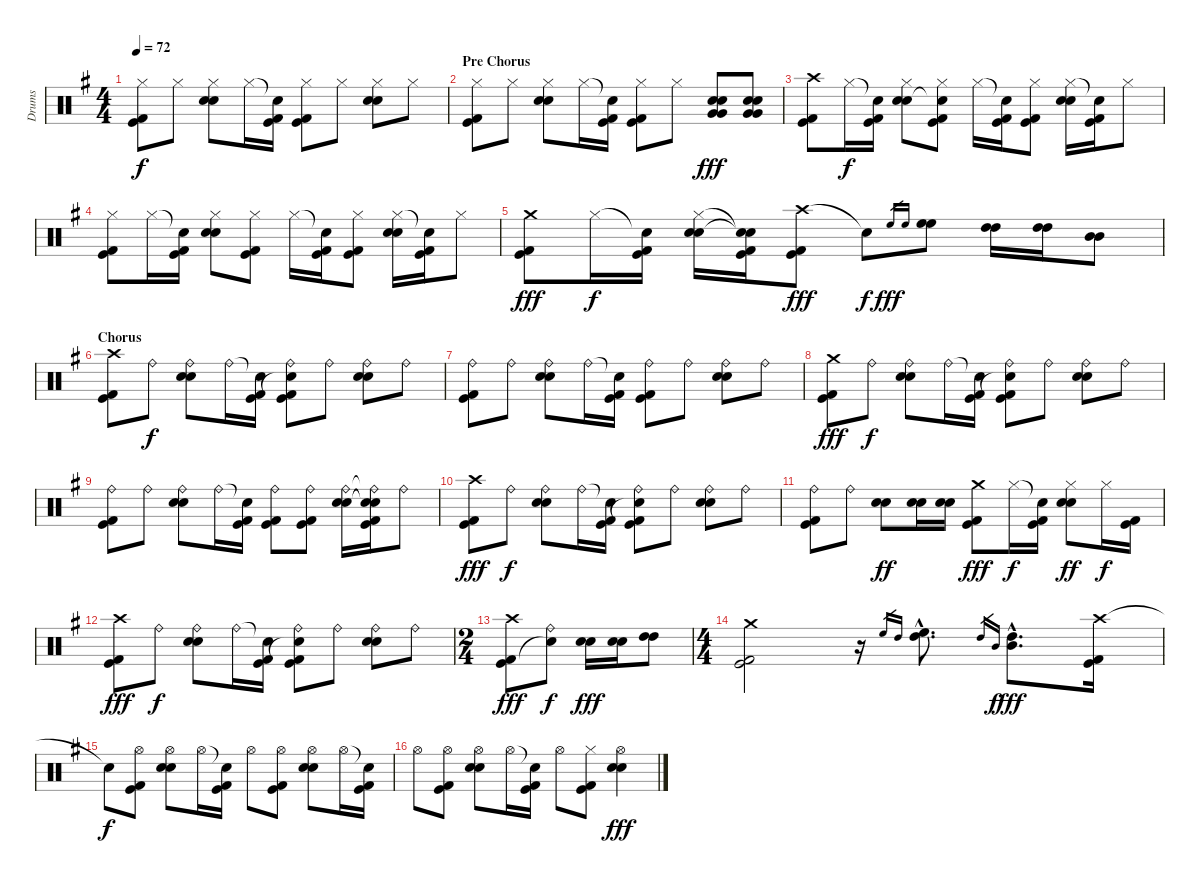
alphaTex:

\track ("Drums" "Drums") {instrument percussion}
\staff {score}
\articulation defaults
\ts (4 4)
\tempo 72
\clef neutral
\ks g
("Hi-Hat (closed)" "Kick (hit)" "Kick (hit) 2").8{dy f} "Hi-Hat (closed)".8 ("Hi-Hat (closed)" "Electric Snare (hit)" "Snare (hit) 2").8 "Hi-Hat (closed)".16 ("Snare (hit)"{t} "Kick (hit)" "Kick (hit) 2").16 ("Hi-Hat (closed)" "Kick (hit)" "Kick (hit) 2").8 "Hi-Hat (closed)".8 ("Hi-Hat (closed)" "Electric Snare (hit)" "Snare (hit) 2").8 "Hi-Hat (closed)".8 |
\section ("" "Pre Chorus")
("Hi-Hat (closed)" "Kick (hit)" "Kick (hit) 2").8 "Hi-Hat (closed)".8 ("Hi-Hat (closed)" "Electric Snare (hit)" "Snare (hit) 2").8 "Hi-Hat (closed)".16 ("Snare (hit)"{t} "Kick (hit)" "Kick (hit) 2").16 ("Hi-Hat (closed)" "Kick (hit)" "Kick (hit) 2").8 "Hi-Hat (closed)".8 ("Electric Snare (hit)" "Snare (hit) 2" "Very Low Tom (hit)" "Very Low Tom (hit)").8{dy fff} ("Electric Snare (hit)" "Snare (hit) 2" "Very Low Tom (hit)" "Very Low Tom (hit)").8 |
("Crash high (hit)" "Kick (hit)" "Kick (hit) 2").8 "Hi-Hat (closed)".16{dy f} ("Snare (hit)"{t} "Kick (hit)" "Kick (hit) 2").16 ("Hi-Hat (closed)" "Electric Snare (hit)" "Snare (hit) 2").8 ("Hi-Hat (closed)" "Snare (hit)"{t} "Kick (hit)" "Kick (hit) 2").8 "Hi-Hat (closed)".16 ("Snare (hit)"{t} "Kick (hit)" "Kick (hit) 2").16 ("Hi-Hat (closed)" "Kick (hit)" "Kick (hit) 2").8 ("Hi-Hat (closed)" "Electric Snare (hit)" "Snare (hit) 2").16 ("Snare (hit)"{t} "Kick (hit)" "Kick (hit) 2").16 "Hi-Hat (closed)".8 |
("Hi-Hat (closed)" "Kick (hit)" "Kick (hit) 2").8 "Hi-Hat (closed)".16 ("Snare (hit)"{t} "Kick (hit)" "Kick (hit) 2").16 ("Hi-Hat (closed)" "Electric Snare (hit)" "Snare (hit) 2").8 ("Hi-Hat (closed)" "Kick (hit)" "Kick (hit) 2").8 "Hi-Hat (closed)".16 ("Snare (hit)"{t} "Kick (hit)" "Kick (hit) 2").16 ("Hi-Hat (closed)" "Kick (hit)" "Kick (hit) 2").8 ("Hi-Hat (closed)" "Electric Snare (hit)" "Snare (hit) 2").16 ("Snare (hit)"{t} "Kick (hit)" "Kick (hit) 2").16 "Hi-Hat (closed)".8 |
("Crash medium (hit)" "Kick (hit)" "Kick (hit) 2").8{dy fff} "Hi-Hat (closed)".16{dy f} ("Snare (hit)"{t} "Kick (hit)" "Kick (hit) 2").16 ("Hi-Hat (closed)" "Electric Snare (hit)" "Snare (hit) 2").16 ("Snare (hit)"{t} "Snare (hit)"{t} "Kick (hit)" "Kick (hit) 2").16 ("Crash high (hit)" "Kick (hit)" "Kick (hit) 2").8{dy fff} "Snare (hit)"{t}.8{dy f} "High Floor Tom (hit)".16{gr dy fff} "High Floor Tom (hit)".16{gr} ("High Floor Tom (hit)" "High Floor Tom (hit)").8 ("High Tom (hit)" "High Tom (hit)").16 ("High Tom (hit)" "High Tom (hit)").16 ("Mid Tom (hit)" "Mid Tom (hit)").8 |
\section ("" "Chorus")
("Crash high (hit)" "Kick (hit)" "Kick (hit) 2").8 "Ride (bell)".8{dy f} ("Ride (bell)" "Electric Snare (hit)" "Snare (hit) 2").8 "Ride (bell)".16 ("Snare (hit)"{t} "Kick (hit)" "Kick (hit) 2").16 ("Ride (bell)" "Snare (hit)"{t} "Kick (hit)" "Kick (hit) 2").8 "Ride (bell)".8 ("Ride (bell)" "Electric Snare (hit)" "Snare (hit) 2").8 "Ride (bell)".8 |
("Ride (bell)" "Kick (hit)" "Kick (hit) 2").8 "Ride (bell)".8 ("Ride (bell)" "Electric Snare (hit)" "Snare (hit) 2").8 "Ride (bell)".16 ("Snare (hit)"{t} "Kick (hit)" "Kick (hit) 2").16 ("Ride (bell)" "Kick (hit)" "Kick (hit) 2").8 "Ride (bell)".8 ("Ride (bell)" "Electric Snare (hit)" "Snare (hit) 2").8 "Ride (bell)".8 |
("Crash medium (hit)" "Kick (hit)" "Kick (hit) 2").8{dy fff} "Ride (bell)".8{dy f} ("Ride (bell)" "Electric Snare (hit)" "Snare (hit) 2").8 "Ride (bell)".16 ("Snare (hit)"{t} "Kick (hit)" "Kick (hit) 2").16 ("Ride (bell)" "Snare (hit)"{t} "Kick (hit)" "Kick (hit) 2").8 "Ride (bell)".8 ("Ride (bell)" "Electric Snare (hit)" "Snare (hit) 2").8 "Ride (bell)".8 |
("Ride (bell)" "Kick (hit)" "Kick (hit) 2").8 "Ride (bell)".8 ("Ride (bell)" "Electric Snare (hit)" "Snare (hit) 2").8 "Ride (bell)".16 ("Snare (hit)"{t} "Kick (hit)" "Kick (hit) 2").16 ("Ride (bell)" "Kick (hit)" "Kick (hit) 2").8 ("Ride (bell)" "Kick (hit)" "Kick (hit) 2").8 ("Ride (bell)" "Electric Snare (hit)" "Snare (hit) 2").16 ("Ride (bell)"{t} "Snare (hit)"{t} "Snare (hit)"{t} "Kick (hit)" "Kick (hit) 2").16 "Ride (bell)".8 |
("Crash high (hit)" "Kick (hit)" "Kick (hit) 2").8{dy fff} "Ride (bell)".8{dy f} ("Ride (bell)" "Electric Snare (hit)" "Snare (hit) 2").8 "Ride (bell)".16 ("Snare (hit)"{t} "Kick (hit)" "Kick (hit) 2").16 ("Ride (bell)" "Snare (hit)"{t} "Kick (hit)" "Kick (hit) 2").8 "Ride (bell)".8 ("Ride (bell)" "Electric Snare (hit)" "Snare (hit) 2").8 "Ride (bell)".8 |
("Ride (bell)" "Kick (hit)" "Kick (hit) 2").8 "Ride (bell)".8 ("Electric Snare (hit)" "Snare (hit) 2").8{dy ff} ("Electric Snare (hit)" "Snare (hit) 2").16 ("Electric Snare (hit)" "Snare (hit) 2").16 ("Crash medium (hit)" "Kick (hit)" "Kick (hit) 2").8{dy fff} "Hi-Hat (closed)".16{dy f} ("Snare (hit)"{t} "Kick (hit)" "Kick (hit) 2").16 ("Hi-Hat (closed)" "Electric Snare (hit)" "Snare (hit) 2").8{dy ff} "Hi-Hat (closed)".16{dy f} ("Kick (hit)" "Kick (hit) 2").16 |
("Crash high (hit)" "Kick (hit)" "Kick (hit) 2").8{dy fff} "Ride (bell)".8{dy f} ("Ride (bell)" "Electric Snare (hit)" "Snare (hit) 2").8 "Ride (bell)".16 ("Snare (hit)"{t} "Kick (hit)" "Kick (hit) 2").16 ("Ride (bell)" "Snare (hit)"{t} "Kick (hit)" "Kick (hit) 2").8 "Ride (bell)".8 ("Ride (bell)" "Electric Snare (hit)" "Snare (hit) 2").8 "Ride (bell)".8 |
\ts (2 4)
("Crash high (hit)" "Kick (hit)" "Kick (hit) 2").8{dy fff} ("Ride (bell)" "Snare (hit)"{t}).8{dy f} ("Electric Snare (hit)" "Snare (hit) 2").16{dy fff} ("Electric Snare (hit)" "Snare (hit) 2").16 ("High Tom (hit)" "High Tom (hit)").8 |
\ts (4 4)
("Crash medium (hit)" "Kick (hit)" "Kick (hit) 2").2 r.16 "High Floor Tom (hit)".16{gr} "High Tom (hit)".16{gr} ("High Floor Tom (hit)"{hac} "High Tom (hit)"{hac}).8{d} "High Tom (hit)".16{gr} "Mid Tom (hit)".16{gr dy f} ("High Tom (hit)"{hac} "Mid Tom (hit)"{hac}).8{d dy fff} ("Crash high (hit)" "Kick (hit)" "Kick (hit) 2").16 |
"Snare (hit)"{t}.8{dy f} ("Hi-Hat (open)" "Kick (hit)" "Kick (hit) 2").8 ("Hi-Hat (open)" "Electric Snare (hit)" "Snare (hit) 2").8 "Hi-Hat (open)".16 ("Snare (hit)"{t} "Kick (hit)" "Kick (hit) 2").16 "Hi-Hat (open)".8 ("Hi-Hat (open)" "Kick (hit)" "Kick (hit) 2").8 ("Hi-Hat (open)" "Electric Snare (hit)" "Snare (hit) 2").8 "Hi-Hat (open)".16 ("Snare (hit)"{t} "Kick (hit)" "Kick (hit) 2").16 |
"Hi-Hat (open)".8 ("Hi-Hat (open)" "Kick (hit)" "Kick (hit) 2").8 ("Hi-Hat (open)" "Electric Snare (hit)" "Snare (hit) 2").8 "Hi-Hat (open)".16 ("Snare (hit)"{t} "Kick (hit)" "Kick (hit) 2").16 "Hi-Hat (open)".8 ("Hi-Hat (closed)" "Kick (hit)" "Kick (hit) 2").8 ("Hi-Hat (open)" "Electric Snare (hit)" "Snare (hit) 2").4{dy fff}
